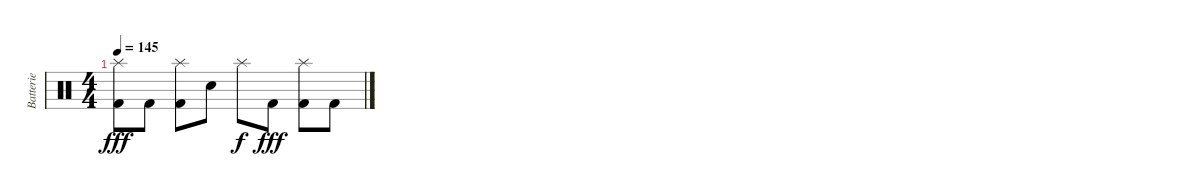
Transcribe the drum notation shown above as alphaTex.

\track ("Batterie" "Batterie") {instrument percussion}
\staff {score}
\articulation defaults
\ts (4 4)
\tempo 145
\clef neutral
\ks c
("Splash (hit)" "Kick (hit) 2").8{dy fff} "Kick (hit) 2".8 ("Splash (hit)" "Kick (hit) 2").8 "Electric Snare (hit)".8 "Splash (hit)".8{dy f} "Kick (hit) 2".8{dy fff} ("Splash (hit)" "Kick (hit) 2").8 "Kick (hit) 2".8
